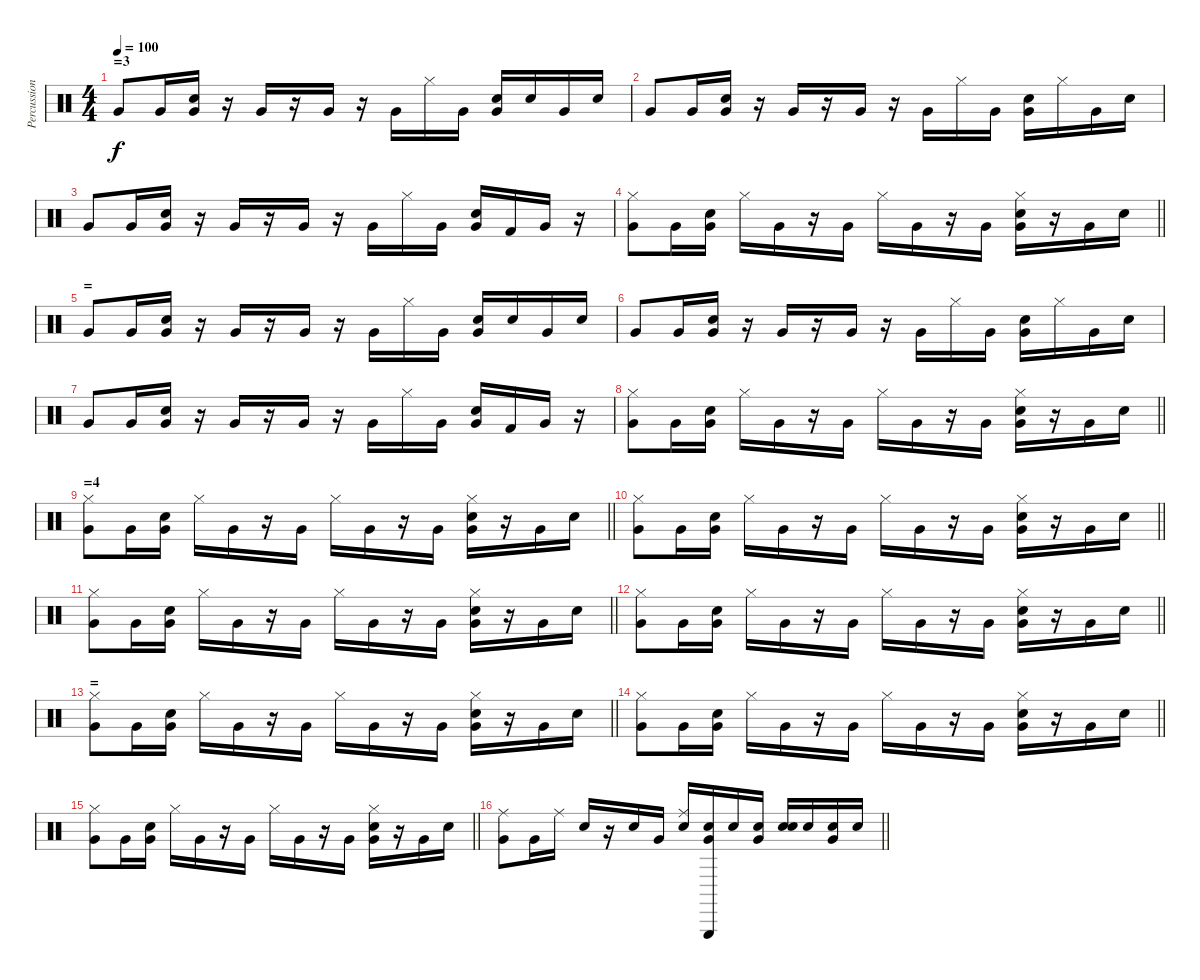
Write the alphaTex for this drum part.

\track ("Percussion" "Percussion") {instrument percussion}
\staff {score}
\articulation defaults
\ts (4 4)
\section ("" "=3")
\tempo 100
\clef neutral
\ks c "Very Low Tom (hit)".8{dy f} "Very Low Tom (hit)".16
("Very Low Tom (hit)" "Electric Snare (hit)").16 r.16 "Very Low Tom (hit)".16 r.16 "Very Low Tom (hit)".16 r.16 "Very Low Tom (hit)".16 "Hi-Hat (closed)".16 "Very Low Tom (hit)".16 ("Very Low Tom (hit)" "Electric Snare (hit)").16 "Electric Snare (hit)".16 "Very Low Tom (hit)".16 "Electric Snare (hit)".16 |
"Very Low Tom (hit)".8 "Very Low Tom (hit)".16 ("Very Low Tom (hit)" "Electric Snare (hit)").16 r.16 "Very Low Tom (hit)".16 r.16 "Very Low Tom (hit)".16 r.16 "Very Low Tom (hit)".16 "Hi-Hat (closed)".16 "Very Low Tom (hit)".16 ("Very Low Tom (hit)" "Electric Snare (hit)").16 "Hi-Hat (closed)".16 "Very Low Tom (hit)".16 "Electric Snare (hit)".16 |
"Very Low Tom (hit)".8 "Very Low Tom (hit)".16 ("Very Low Tom (hit)" "Electric Snare (hit)").16 r.16 "Very Low Tom (hit)".16 r.16 "Very Low Tom (hit)".16 r.16 "Very Low Tom (hit)".16 "Hi-Hat (closed)".16 "Very Low Tom (hit)".16 ("Very Low Tom (hit)" "Electric Snare (hit)").16 "Kick (hit) 2".16 "Very Low Tom (hit)".16 r.16 |
\barLineRight lightlight
("Very Low Tom (hit)" "Hi-Hat (closed)").8 "Very Low Tom (hit)".16 ("Very Low Tom (hit)" "Electric Snare (hit)").16 "Hi-Hat (closed)".16 "Very Low Tom (hit)".16 r.16 "Very Low Tom (hit)".16 "Hi-Hat (closed)".16 "Very Low Tom (hit)".16 r.16 "Very Low Tom (hit)".16 ("Very Low Tom (hit)" "Electric Snare (hit)" "Hi-Hat (closed)").16 r.16 "Very Low Tom (hit)".16 "Electric Snare (hit)".16 |
\section ("" "=")
"Very Low Tom (hit)".8 "Very Low Tom (hit)".16 ("Very Low Tom (hit)" "Electric Snare (hit)").16 r.16 "Very Low Tom (hit)".16 r.16 "Very Low Tom (hit)".16 r.16 "Very Low Tom (hit)".16 "Hi-Hat (closed)".16 "Very Low Tom (hit)".16 ("Very Low Tom (hit)" "Electric Snare (hit)").16 "Electric Snare (hit)".16 "Very Low Tom (hit)".16 "Electric Snare (hit)".16 |
"Very Low Tom (hit)".8 "Very Low Tom (hit)".16 ("Very Low Tom (hit)" "Electric Snare (hit)").16 r.16 "Very Low Tom (hit)".16 r.16 "Very Low Tom (hit)".16 r.16 "Very Low Tom (hit)".16 "Hi-Hat (closed)".16 "Very Low Tom (hit)".16 ("Very Low Tom (hit)" "Electric Snare (hit)").16 "Hi-Hat (closed)".16 "Very Low Tom (hit)".16 "Electric Snare (hit)".16 |
"Very Low Tom (hit)".8 "Very Low Tom (hit)".16 ("Very Low Tom (hit)" "Electric Snare (hit)").16 r.16 "Very Low Tom (hit)".16 r.16 "Very Low Tom (hit)".16 r.16 "Very Low Tom (hit)".16 "Hi-Hat (closed)".16 "Very Low Tom (hit)".16 ("Very Low Tom (hit)" "Electric Snare (hit)").16 "Kick (hit) 2".16 "Very Low Tom (hit)".16 r.16 |
\barLineRight lightlight
("Very Low Tom (hit)" "Hi-Hat (closed)").8 "Very Low Tom (hit)".16 ("Very Low Tom (hit)" "Electric Snare (hit)").16 "Hi-Hat (closed)".16 "Very Low Tom (hit)".16 r.16 "Very Low Tom (hit)".16 "Hi-Hat (closed)".16 "Very Low Tom (hit)".16 r.16 "Very Low Tom (hit)".16 ("Very Low Tom (hit)" "Electric Snare (hit)" "Hi-Hat (closed)").16 r.16 "Very Low Tom (hit)".16 "Electric Snare (hit)".16 |
\section ("" "=4")
\barLineRight lightlight
("Very Low Tom (hit)" "Hi-Hat (closed)").8 "Very Low Tom (hit)".16 ("Very Low Tom (hit)" "Electric Snare (hit)").16 "Hi-Hat (closed)".16 "Very Low Tom (hit)".16 r.16 "Very Low Tom (hit)".16 "Hi-Hat (closed)".16 "Very Low Tom (hit)".16 r.16 "Very Low Tom (hit)".16 ("Very Low Tom (hit)" "Electric Snare (hit)" "Hi-Hat (closed)").16 r.16 "Very Low Tom (hit)".16 "Electric Snare (hit)".16 |
\barLineRight lightlight
("Very Low Tom (hit)" "Hi-Hat (closed)").8 "Very Low Tom (hit)".16 ("Very Low Tom (hit)" "Electric Snare (hit)").16 "Hi-Hat (closed)".16 "Very Low Tom (hit)".16 r.16 "Very Low Tom (hit)".16 "Hi-Hat (closed)".16 "Very Low Tom (hit)".16 r.16 "Very Low Tom (hit)".16 ("Very Low Tom (hit)" "Electric Snare (hit)" "Hi-Hat (closed)").16 r.16 "Very Low Tom (hit)".16 "Electric Snare (hit)".16 |
\barLineRight lightlight
("Very Low Tom (hit)" "Hi-Hat (closed)").8 "Very Low Tom (hit)".16 ("Very Low Tom (hit)" "Electric Snare (hit)").16 "Hi-Hat (closed)".16 "Very Low Tom (hit)".16 r.16 "Very Low Tom (hit)".16 "Hi-Hat (closed)".16 "Very Low Tom (hit)".16 r.16 "Very Low Tom (hit)".16 ("Very Low Tom (hit)" "Electric Snare (hit)" "Hi-Hat (closed)").16 r.16 "Very Low Tom (hit)".16 "Electric Snare (hit)".16 |
\barLineRight lightlight
("Very Low Tom (hit)" "Hi-Hat (closed)").8 "Very Low Tom (hit)".16 ("Very Low Tom (hit)" "Electric Snare (hit)").16 "Hi-Hat (closed)".16 "Very Low Tom (hit)".16 r.16 "Very Low Tom (hit)".16 "Hi-Hat (closed)".16 "Very Low Tom (hit)".16 r.16 "Very Low Tom (hit)".16 ("Very Low Tom (hit)" "Electric Snare (hit)" "Hi-Hat (closed)").16 r.16 "Very Low Tom (hit)".16 "Electric Snare (hit)".16 |
\section ("" "=")
\barLineRight lightlight
("Very Low Tom (hit)" "Hi-Hat (closed)").8 "Very Low Tom (hit)".16 ("Very Low Tom (hit)" "Electric Snare (hit)").16 "Hi-Hat (closed)".16 "Very Low Tom (hit)".16 r.16 "Very Low Tom (hit)".16 "Hi-Hat (closed)".16 "Very Low Tom (hit)".16 r.16 "Very Low Tom (hit)".16 ("Very Low Tom (hit)" "Electric Snare (hit)" "Hi-Hat (closed)").16 r.16 "Very Low Tom (hit)".16 "Electric Snare (hit)".16 |
\barLineRight lightlight
("Very Low Tom (hit)" "Hi-Hat (closed)").8 "Very Low Tom (hit)".16 ("Very Low Tom (hit)" "Electric Snare (hit)").16 "Hi-Hat (closed)".16 "Very Low Tom (hit)".16 r.16 "Very Low Tom (hit)".16 "Hi-Hat (closed)".16 "Very Low Tom (hit)".16 r.16 "Very Low Tom (hit)".16 ("Very Low Tom (hit)" "Electric Snare (hit)" "Hi-Hat (closed)").16 r.16 "Very Low Tom (hit)".16 "Electric Snare (hit)".16 |
\barLineRight lightlight
("Very Low Tom (hit)" "Hi-Hat (closed)").8 "Very Low Tom (hit)".16 ("Very Low Tom (hit)" "Electric Snare (hit)").16 "Hi-Hat (closed)".16 "Very Low Tom (hit)".16 r.16 "Very Low Tom (hit)".16 "Hi-Hat (closed)".16 "Very Low Tom (hit)".16 r.16 "Very Low Tom (hit)".16 ("Very Low Tom (hit)" "Electric Snare (hit)" "Hi-Hat (closed)").16 r.16 "Very Low Tom (hit)".16 "Electric Snare (hit)".16 |
\barLineRight lightlight
("Very Low Tom (hit)" "Ride (middle)").8 "Very Low Tom (hit)".16 "Ride (middle)".16 "Electric Snare (hit)".16 r.16 "Electric Snare (hit)".16 "Very Low Tom (hit)".16 ("Ride (middle)" "Metronome (bell)").16 ("Very Low Tom (hit)" "Metronome (bell)" "Triangle (hit)").16 "Metronome (bell)".16 ("Very Low Tom (hit)" "Metronome (bell)").16 ("Electric Snare (hit)" "Metronome (bell)").16 "Metronome (bell)".16 ("Very Low Tom (hit)" "Metronome (bell)").16 "Metronome (bell)".16
